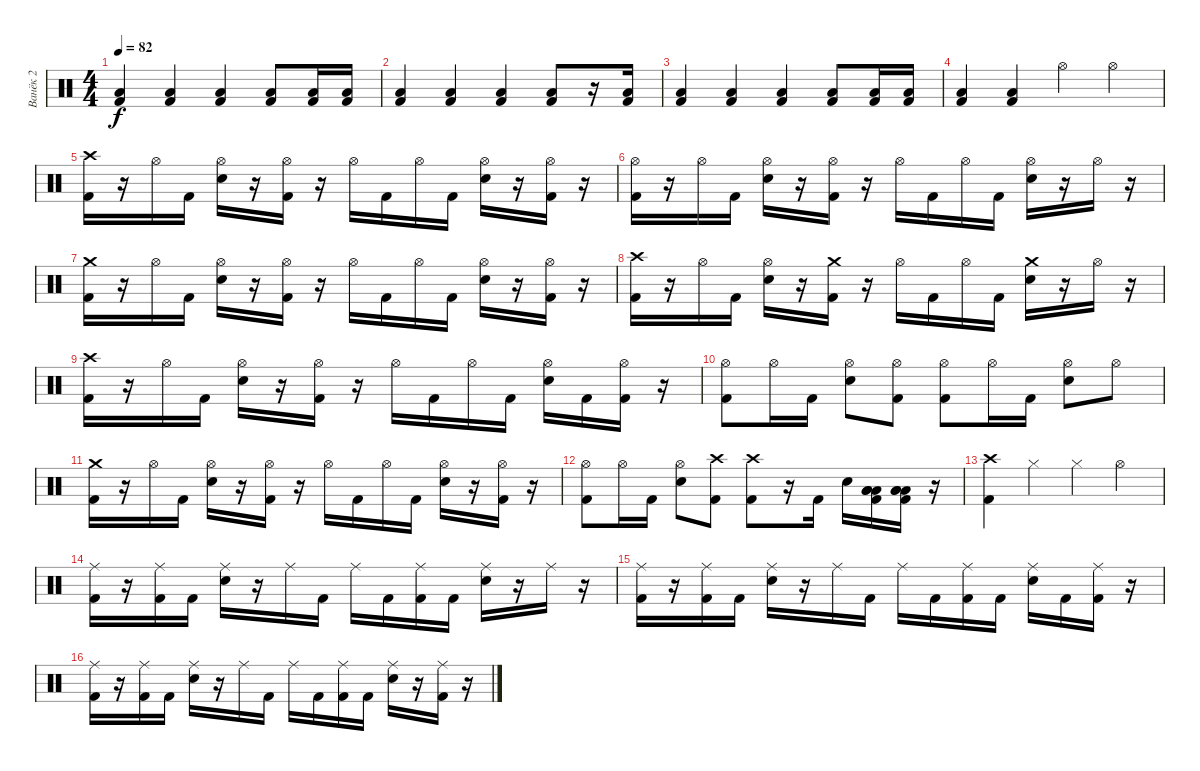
\track ("Ванёк 2" "Ванёк 2") {instrument percussion}
\staff {score}
\articulation defaults
\ts (4 4)
\tempo 82
\clef neutral
\ks c
("Low Tom (hit)" "Kick (hit) 2").4{dy f} ("Low Tom (hit)" "Kick (hit) 2").4 ("Low Tom (hit)" "Kick (hit) 2").4 ("Low Tom (hit)" "Kick (hit) 2").8 ("Low Tom (hit)" "Kick (hit) 2").16 ("Low Tom (hit)" "Kick (hit) 2").16 |
("Low Tom (hit)" "Kick (hit) 2").4 ("Low Tom (hit)" "Kick (hit) 2").4 ("Low Tom (hit)" "Kick (hit) 2").4 ("Low Tom (hit)" "Kick (hit) 2").8 r.16 ("Low Tom (hit)" "Kick (hit) 2").16 |
("Low Tom (hit)" "Kick (hit) 2").4 ("Low Tom (hit)" "Kick (hit) 2").4 ("Low Tom (hit)" "Kick (hit) 2").4 ("Low Tom (hit)" "Kick (hit) 2").8 ("Low Tom (hit)" "Kick (hit) 2").16 ("Low Tom (hit)" "Kick (hit) 2").16 |
("Low Tom (hit)" "Kick (hit) 2").4 ("Low Tom (hit)" "Kick (hit) 2").4 "Hi-Hat (open)".4 "Hi-Hat (open)".4 |
("Crash high (hit)" "Kick (hit) 2").16 r.16 "Hi-Hat (open)".16 "Kick (hit) 2".16 ("Hi-Hat (open)" "Snare (hit) 2").16 r.16 ("Hi-Hat (open)" "Kick (hit) 2").16 r.16 "Hi-Hat (open)".16 "Kick (hit) 2".16 "Hi-Hat (open)".16 "Kick (hit) 2".16 ("Hi-Hat (open)" "Snare (hit) 2").16 r.16 ("Hi-Hat (open)" "Kick (hit) 2").16 r.16 |
("Hi-Hat (open)" "Kick (hit) 2").16 r.16 "Hi-Hat (open)".16 "Kick (hit) 2".16 ("Hi-Hat (open)" "Snare (hit) 2").16 r.16 ("Hi-Hat (open)" "Kick (hit) 2").16 r.16 "Hi-Hat (open)".16 "Kick (hit) 2".16 "Hi-Hat (open)".16 "Kick (hit) 2".16 ("Hi-Hat (open)" "Snare (hit) 2").16 r.16 "Hi-Hat (open)".16 r.16 |
("Crash medium (hit)" "Kick (hit) 2").16 r.16 "Hi-Hat (open)".16 "Kick (hit) 2".16 ("Hi-Hat (open)" "Snare (hit) 2").16 r.16 ("Hi-Hat (open)" "Kick (hit) 2").16 r.16 "Hi-Hat (open)".16 "Kick (hit) 2".16 "Hi-Hat (open)".16 "Kick (hit) 2".16 ("Hi-Hat (open)" "Snare (hit) 2").16 r.16 ("Hi-Hat (open)" "Kick (hit) 2").16 r.16 |
("Crash high (hit)" "Kick (hit) 2").16 r.16 "Hi-Hat (open)".16 "Kick (hit) 2".16 ("Hi-Hat (open)" "Snare (hit) 2").16 r.16 ("Crash medium (hit)" "Kick (hit) 2").16 r.16 "Hi-Hat (open)".16 "Kick (hit) 2".16 "Hi-Hat (open)".16 "Kick (hit) 2".16 ("Crash medium (hit)" "Snare (hit) 2").16 r.16 "Hi-Hat (open)".16 r.16 |
("Crash high (hit)" "Kick (hit) 2").16 r.16 "Hi-Hat (open)".16 "Kick (hit) 2".16 ("Hi-Hat (open)" "Snare (hit) 2").16 r.16 ("Hi-Hat (open)" "Kick (hit) 2").16 r.16 "Hi-Hat (open)".16 "Kick (hit) 2".16 "Hi-Hat (open)".16 "Kick (hit) 2".16 ("Hi-Hat (open)" "Snare (hit) 2").16 "Kick (hit) 2".16 ("Hi-Hat (open)" "Kick (hit) 2").16 r.16 |
("Hi-Hat (open)" "Kick (hit) 2").8 "Hi-Hat (open)".16 "Kick (hit) 2".16 ("Hi-Hat (open)" "Snare (hit) 2").8 ("Hi-Hat (open)" "Kick (hit) 2").8 ("Hi-Hat (open)" "Kick (hit) 2").8 "Hi-Hat (open)".16 "Kick (hit) 2".16 ("Hi-Hat (open)" "Snare (hit) 2").8 "Hi-Hat (open)".8 |
("Crash medium (hit)" "Kick (hit) 2").16 r.16 "Hi-Hat (open)".16 "Kick (hit) 2".16 ("Hi-Hat (open)" "Snare (hit) 2").16 r.16 ("Hi-Hat (open)" "Kick (hit) 2").16 r.16 "Hi-Hat (open)".16 "Kick (hit) 2".16 "Hi-Hat (open)".16 "Kick (hit) 2".16 ("Hi-Hat (open)" "Snare (hit) 2").16 r.16 ("Hi-Hat (open)" "Kick (hit) 2").16 r.16 |
("Hi-Hat (open)" "Kick (hit) 2").8 "Hi-Hat (open)".16 "Kick (hit) 2".16 ("Hi-Hat (open)" "Snare (hit) 2").8 ("Crash high (hit)" "Kick (hit) 2").8 ("Crash high (hit)" "Kick (hit) 2").8 r.16 "Kick (hit) 2".16 "Snare (hit) 2".16 ("Low Tom (hit)" "Low Tom (hit)" "Low Floor Tom (hit)" "Kick (hit) 2").16 ("Low Tom (hit)" "Low Tom (hit)" "Low Floor Tom (hit)" "Kick (hit) 2").16 r.16 |
("Kick (hit) 2" "Crash high (hit)").4 "Hi-Hat (closed)".4 "Hi-Hat (closed)".4 "Hi-Hat (open)".4 |
("Ride (middle)" "Kick (hit) 2").16 r.16 ("Ride (middle)" "Kick (hit) 2").16 "Kick (hit) 2".16 ("Ride (middle)" "Snare (hit) 2").16 r.16 "Ride (middle)".16 "Kick (hit) 2".16 "Ride (middle)".16 "Kick (hit) 2".16 ("Ride (middle)" "Kick (hit) 2").16 "Kick (hit) 2".16 ("Ride (middle)" "Snare (hit) 2").16 r.16 "Ride (middle)".16 r.16 |
("Ride (middle)" "Kick (hit) 2").16 r.16 ("Ride (middle)" "Kick (hit) 2").16 "Kick (hit) 2".16 ("Ride (middle)" "Snare (hit) 2").16 r.16 "Ride (middle)".16 "Kick (hit) 2".16 "Ride (middle)".16 "Kick (hit) 2".16 ("Ride (middle)" "Kick (hit) 2").16 "Kick (hit) 2".16 ("Ride (middle)" "Snare (hit) 2").16 "Kick (hit) 2".16 ("Ride (middle)" "Kick (hit) 2").16 r.16 |
("Ride (middle)" "Kick (hit) 2").16 r.16 ("Ride (middle)" "Kick (hit) 2").16 "Kick (hit) 2".16 ("Ride (middle)" "Snare (hit) 2").16 r.16 "Ride (middle)".16 "Kick (hit) 2".16 "Ride (middle)".16 "Kick (hit) 2".16 ("Ride (middle)" "Kick (hit) 2").16 "Kick (hit) 2".16 ("Ride (middle)" "Snare (hit) 2").16 r.16 ("Ride (middle)" "Kick (hit) 2").16 r.16
